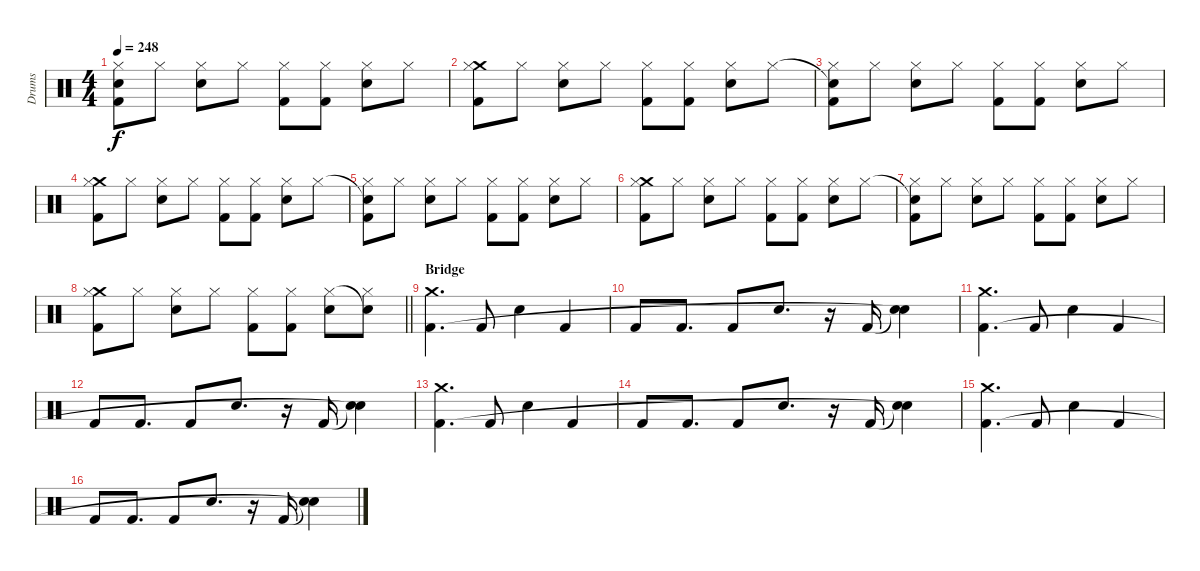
\track ("Drums" "Drums") {instrument percussion}
\staff {score}
\articulation defaults
\ts (4 4)
\tempo 248
\clef neutral
\ks c
("Snare (hit)"{t} "Hi-Hat (closed)" "Kick (hit) 2").8{dy f} "Hi-Hat (closed)".8 ("Hi-Hat (closed)" "Electric Snare (hit)").8 "Hi-Hat (closed)".8 ("Hi-Hat (closed)" "Kick (hit) 2").8 ("Hi-Hat (closed)" "Kick (hit) 2").8 ("Hi-Hat (closed)" "Electric Snare (hit)").8 "Hi-Hat (closed)".8 |
("Crash medium (hit)" "Hi-Hat (closed)" "Kick (hit) 2").8 "Hi-Hat (closed)".8 ("Hi-Hat (closed)" "Electric Snare (hit)").8 "Hi-Hat (closed)".8 ("Hi-Hat (closed)" "Kick (hit) 2").8 ("Hi-Hat (closed)" "Kick (hit) 2").8 ("Hi-Hat (closed)" "Electric Snare (hit)").8 "Hi-Hat (closed)".8 |
("Snare (hit)"{t} "Hi-Hat (closed)" "Kick (hit) 2").8 "Hi-Hat (closed)".8 ("Hi-Hat (closed)" "Electric Snare (hit)").8 "Hi-Hat (closed)".8 ("Hi-Hat (closed)" "Kick (hit) 2").8 ("Hi-Hat (closed)" "Kick (hit) 2").8 ("Hi-Hat (closed)" "Electric Snare (hit)").8 "Hi-Hat (closed)".8 |
("Crash medium (hit)" "Hi-Hat (closed)" "Kick (hit) 2").8 "Hi-Hat (closed)".8 ("Hi-Hat (closed)" "Electric Snare (hit)").8 "Hi-Hat (closed)".8 ("Hi-Hat (closed)" "Kick (hit) 2").8 ("Hi-Hat (closed)" "Kick (hit) 2").8 ("Hi-Hat (closed)" "Electric Snare (hit)").8 "Hi-Hat (closed)".8 |
("Snare (hit)"{t} "Hi-Hat (closed)" "Kick (hit) 2").8 "Hi-Hat (closed)".8 ("Hi-Hat (closed)" "Electric Snare (hit)").8 "Hi-Hat (closed)".8 ("Hi-Hat (closed)" "Kick (hit) 2").8 ("Hi-Hat (closed)" "Kick (hit) 2").8 ("Hi-Hat (closed)" "Electric Snare (hit)").8 "Hi-Hat (closed)".8 |
("Crash medium (hit)" "Hi-Hat (closed)" "Kick (hit) 2").8 "Hi-Hat (closed)".8 ("Hi-Hat (closed)" "Electric Snare (hit)").8 "Hi-Hat (closed)".8 ("Hi-Hat (closed)" "Kick (hit) 2").8 ("Hi-Hat (closed)" "Kick (hit) 2").8 ("Hi-Hat (closed)" "Electric Snare (hit)").8 "Hi-Hat (closed)".8 |
("Snare (hit)"{t} "Hi-Hat (closed)" "Kick (hit) 2").8 "Hi-Hat (closed)".8 ("Hi-Hat (closed)" "Electric Snare (hit)").8 "Hi-Hat (closed)".8 ("Hi-Hat (closed)" "Kick (hit) 2").8 ("Hi-Hat (closed)" "Kick (hit) 2").8 ("Hi-Hat (closed)" "Electric Snare (hit)").8 "Hi-Hat (closed)".8 |
\barLineRight lightlight
("Crash medium (hit)" "Hi-Hat (closed)" "Kick (hit) 2").8 "Hi-Hat (closed)".8 ("Hi-Hat (closed)" "Electric Snare (hit)").8 "Hi-Hat (closed)".8 ("Hi-Hat (closed)" "Kick (hit) 2").8 ("Hi-Hat (closed)" "Kick (hit) 2").8 ("Hi-Hat (closed)" "Electric Snare (hit)").8 ("Snare (hit)"{t} "Hi-Hat (closed)").8 |
\section ("" "Bridge")
("Crash medium (hit)" "Kick (hit) 2").4{d} "Kick (hit) 2".8 "Electric Snare (hit)".4 "Kick (hit) 2".4 |
"Kick (hit) 2".8 "Kick (hit) 2".8{d} "Kick (hit) 2".8 "Electric Snare (hit)".8{d} r.16 "Kick (hit) 2".16 ("Snare (hit)"{t} "Snare (hit)"{t}).4 |
("Crash medium (hit)" "Kick (hit) 2").4{d} "Kick (hit) 2".8 "Electric Snare (hit)".4 "Kick (hit) 2".4 |
"Kick (hit) 2".8 "Kick (hit) 2".8{d} "Kick (hit) 2".8 "Electric Snare (hit)".8{d} r.16 "Kick (hit) 2".16 ("Snare (hit)"{t} "Snare (hit)"{t}).4 |
("Crash medium (hit)" "Kick (hit) 2").4{d} "Kick (hit) 2".8 "Electric Snare (hit)".4 "Kick (hit) 2".4 |
"Kick (hit) 2".8 "Kick (hit) 2".8{d} "Kick (hit) 2".8 "Electric Snare (hit)".8{d} r.16 "Kick (hit) 2".16 ("Snare (hit)"{t} "Snare (hit)"{t}).4 |
("Crash medium (hit)" "Kick (hit) 2").4{d} "Kick (hit) 2".8 "Electric Snare (hit)".4 "Kick (hit) 2".4 |
"Kick (hit) 2".8 "Kick (hit) 2".8{d} "Kick (hit) 2".8 "Electric Snare (hit)".8{d} r.16 "Kick (hit) 2".16 ("Snare (hit)"{t} "Snare (hit)"{t}).4
